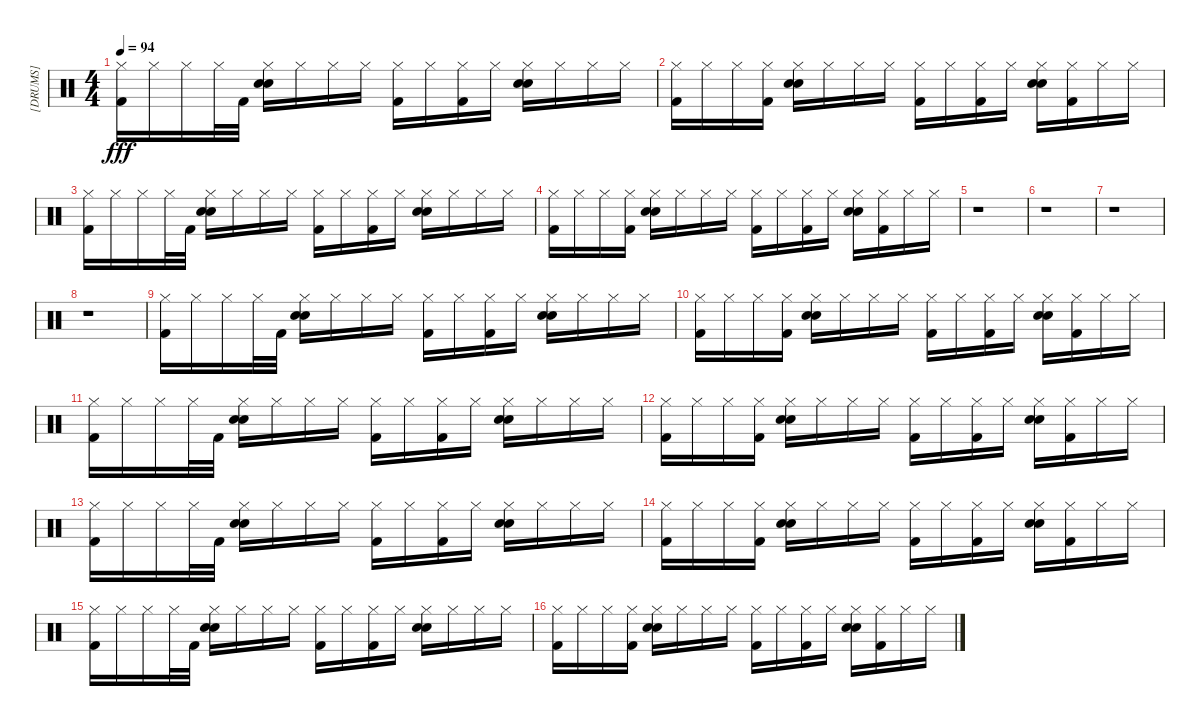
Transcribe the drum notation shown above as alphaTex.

\track ("[DRUMS]" "[DRUMS]") {instrument percussion}
\staff {score}
\articulation defaults
\ts (4 4)
\tempo 94
\clef neutral
\ks c
("Hi-Hat (closed)" "Kick (hit) 2").16{dy fff} "Hi-Hat (closed)".16 "Hi-Hat (closed)".16 "Hi-Hat (closed)".32 "Kick (hit) 2".32 ("Hi-Hat (closed)" "Snare (hit) 2" "Electric Snare (hit)").16 "Hi-Hat (closed)".16 "Hi-Hat (closed)".16 "Hi-Hat (closed)".16 ("Hi-Hat (closed)" "Kick (hit) 2").16 "Hi-Hat (closed)".16 ("Hi-Hat (closed)" "Kick (hit) 2").16 "Hi-Hat (closed)".16 ("Hi-Hat (closed)" "Snare (hit) 2" "Electric Snare (hit)").16 "Hi-Hat (closed)".16 "Hi-Hat (closed)".16 "Hi-Hat (closed)".16 |
("Kick (hit) 2" "Hi-Hat (closed)").16 "Hi-Hat (closed)".16 "Hi-Hat (closed)".16 ("Kick (hit) 2" "Hi-Hat (closed)").16 ("Snare (hit) 2" "Electric Snare (hit)" "Hi-Hat (closed)").16 "Hi-Hat (closed)".16 "Hi-Hat (closed)".16 "Hi-Hat (closed)".16 ("Kick (hit) 2" "Hi-Hat (closed)").16 "Hi-Hat (closed)".16 ("Kick (hit) 2" "Hi-Hat (closed)").16 "Hi-Hat (closed)".16 ("Snare (hit) 2" "Electric Snare (hit)" "Hi-Hat (closed)").16 ("Kick (hit) 2" "Hi-Hat (closed)").16 "Hi-Hat (closed)".16 "Hi-Hat (closed)".16 |
("Hi-Hat (closed)" "Kick (hit) 2").16 "Hi-Hat (closed)".16 "Hi-Hat (closed)".16 "Hi-Hat (closed)".32 "Kick (hit) 2".32 ("Hi-Hat (closed)" "Snare (hit) 2" "Electric Snare (hit)").16 "Hi-Hat (closed)".16 "Hi-Hat (closed)".16 "Hi-Hat (closed)".16 ("Hi-Hat (closed)" "Kick (hit) 2").16 "Hi-Hat (closed)".16 ("Hi-Hat (closed)" "Kick (hit) 2").16 "Hi-Hat (closed)".16 ("Hi-Hat (closed)" "Snare (hit) 2" "Electric Snare (hit)").16 "Hi-Hat (closed)".16 "Hi-Hat (closed)".16 "Hi-Hat (closed)".16 |
("Kick (hit) 2" "Hi-Hat (closed)").16 "Hi-Hat (closed)".16 "Hi-Hat (closed)".16 ("Kick (hit) 2" "Hi-Hat (closed)").16 ("Snare (hit) 2" "Electric Snare (hit)" "Hi-Hat (closed)").16 "Hi-Hat (closed)".16 "Hi-Hat (closed)".16 "Hi-Hat (closed)".16 ("Kick (hit) 2" "Hi-Hat (closed)").16 "Hi-Hat (closed)".16 ("Kick (hit) 2" "Hi-Hat (closed)").16 "Hi-Hat (closed)".16 ("Snare (hit) 2" "Electric Snare (hit)" "Hi-Hat (closed)").16 ("Kick (hit) 2" "Hi-Hat (closed)").16 "Hi-Hat (closed)".16 "Hi-Hat (closed)".16 |
r.1 |
r.1 |
r.1 |
r.1 |
("Hi-Hat (closed)" "Kick (hit) 2").16 "Hi-Hat (closed)".16 "Hi-Hat (closed)".16 "Hi-Hat (closed)".32 "Kick (hit) 2".32 ("Hi-Hat (closed)" "Snare (hit) 2" "Electric Snare (hit)").16 "Hi-Hat (closed)".16 "Hi-Hat (closed)".16 "Hi-Hat (closed)".16 ("Hi-Hat (closed)" "Kick (hit) 2").16 "Hi-Hat (closed)".16 ("Hi-Hat (closed)" "Kick (hit) 2").16 "Hi-Hat (closed)".16 ("Hi-Hat (closed)" "Snare (hit) 2" "Electric Snare (hit)").16 "Hi-Hat (closed)".16 "Hi-Hat (closed)".16 "Hi-Hat (closed)".16 |
("Kick (hit) 2" "Hi-Hat (closed)").16 "Hi-Hat (closed)".16 "Hi-Hat (closed)".16 ("Kick (hit) 2" "Hi-Hat (closed)").16 ("Snare (hit) 2" "Electric Snare (hit)" "Hi-Hat (closed)").16 "Hi-Hat (closed)".16 "Hi-Hat (closed)".16 "Hi-Hat (closed)".16 ("Kick (hit) 2" "Hi-Hat (closed)").16 "Hi-Hat (closed)".16 ("Kick (hit) 2" "Hi-Hat (closed)").16 "Hi-Hat (closed)".16 ("Snare (hit) 2" "Electric Snare (hit)" "Hi-Hat (closed)").16 ("Kick (hit) 2" "Hi-Hat (closed)").16 "Hi-Hat (closed)".16 "Hi-Hat (closed)".16 |
("Hi-Hat (closed)" "Kick (hit) 2").16 "Hi-Hat (closed)".16 "Hi-Hat (closed)".16 "Hi-Hat (closed)".32 "Kick (hit) 2".32 ("Hi-Hat (closed)" "Snare (hit) 2" "Electric Snare (hit)").16 "Hi-Hat (closed)".16 "Hi-Hat (closed)".16 "Hi-Hat (closed)".16 ("Hi-Hat (closed)" "Kick (hit) 2").16 "Hi-Hat (closed)".16 ("Hi-Hat (closed)" "Kick (hit) 2").16 "Hi-Hat (closed)".16 ("Hi-Hat (closed)" "Snare (hit) 2" "Electric Snare (hit)").16 "Hi-Hat (closed)".16 "Hi-Hat (closed)".16 "Hi-Hat (closed)".16 |
("Kick (hit) 2" "Hi-Hat (closed)").16 "Hi-Hat (closed)".16 "Hi-Hat (closed)".16 ("Kick (hit) 2" "Hi-Hat (closed)").16 ("Snare (hit) 2" "Electric Snare (hit)" "Hi-Hat (closed)").16 "Hi-Hat (closed)".16 "Hi-Hat (closed)".16 "Hi-Hat (closed)".16 ("Kick (hit) 2" "Hi-Hat (closed)").16 "Hi-Hat (closed)".16 ("Kick (hit) 2" "Hi-Hat (closed)").16 "Hi-Hat (closed)".16 ("Snare (hit) 2" "Electric Snare (hit)" "Hi-Hat (closed)").16 ("Kick (hit) 2" "Hi-Hat (closed)").16 "Hi-Hat (closed)".16 "Hi-Hat (closed)".16 |
("Hi-Hat (closed)" "Kick (hit) 2").16 "Hi-Hat (closed)".16 "Hi-Hat (closed)".16 "Hi-Hat (closed)".32 "Kick (hit) 2".32 ("Hi-Hat (closed)" "Snare (hit) 2" "Electric Snare (hit)").16 "Hi-Hat (closed)".16 "Hi-Hat (closed)".16 "Hi-Hat (closed)".16 ("Hi-Hat (closed)" "Kick (hit) 2").16 "Hi-Hat (closed)".16 ("Hi-Hat (closed)" "Kick (hit) 2").16 "Hi-Hat (closed)".16 ("Hi-Hat (closed)" "Snare (hit) 2" "Electric Snare (hit)").16 "Hi-Hat (closed)".16 "Hi-Hat (closed)".16 "Hi-Hat (closed)".16 |
("Kick (hit) 2" "Hi-Hat (closed)").16 "Hi-Hat (closed)".16 "Hi-Hat (closed)".16 ("Kick (hit) 2" "Hi-Hat (closed)").16 ("Snare (hit) 2" "Electric Snare (hit)" "Hi-Hat (closed)").16 "Hi-Hat (closed)".16 "Hi-Hat (closed)".16 "Hi-Hat (closed)".16 ("Kick (hit) 2" "Hi-Hat (closed)").16 "Hi-Hat (closed)".16 ("Kick (hit) 2" "Hi-Hat (closed)").16 "Hi-Hat (closed)".16 ("Snare (hit) 2" "Electric Snare (hit)" "Hi-Hat (closed)").16 ("Kick (hit) 2" "Hi-Hat (closed)").16 "Hi-Hat (closed)".16 "Hi-Hat (closed)".16 |
("Hi-Hat (closed)" "Kick (hit) 2").16 "Hi-Hat (closed)".16 "Hi-Hat (closed)".16 "Hi-Hat (closed)".32 "Kick (hit) 2".32 ("Hi-Hat (closed)" "Snare (hit) 2" "Electric Snare (hit)").16 "Hi-Hat (closed)".16 "Hi-Hat (closed)".16 "Hi-Hat (closed)".16 ("Hi-Hat (closed)" "Kick (hit) 2").16 "Hi-Hat (closed)".16 ("Hi-Hat (closed)" "Kick (hit) 2").16 "Hi-Hat (closed)".16 ("Hi-Hat (closed)" "Snare (hit) 2" "Electric Snare (hit)").16 "Hi-Hat (closed)".16 "Hi-Hat (closed)".16 "Hi-Hat (closed)".16 |
("Kick (hit) 2" "Hi-Hat (closed)").16 "Hi-Hat (closed)".16 "Hi-Hat (closed)".16 ("Kick (hit) 2" "Hi-Hat (closed)").16 ("Snare (hit) 2" "Electric Snare (hit)" "Hi-Hat (closed)").16 "Hi-Hat (closed)".16 "Hi-Hat (closed)".16 "Hi-Hat (closed)".16 ("Kick (hit) 2" "Hi-Hat (closed)").16 "Hi-Hat (closed)".16 ("Kick (hit) 2" "Hi-Hat (closed)").16 "Hi-Hat (closed)".16 ("Snare (hit) 2" "Electric Snare (hit)" "Hi-Hat (closed)").16 ("Kick (hit) 2" "Hi-Hat (closed)").16 "Hi-Hat (closed)".16 "Hi-Hat (closed)".16
